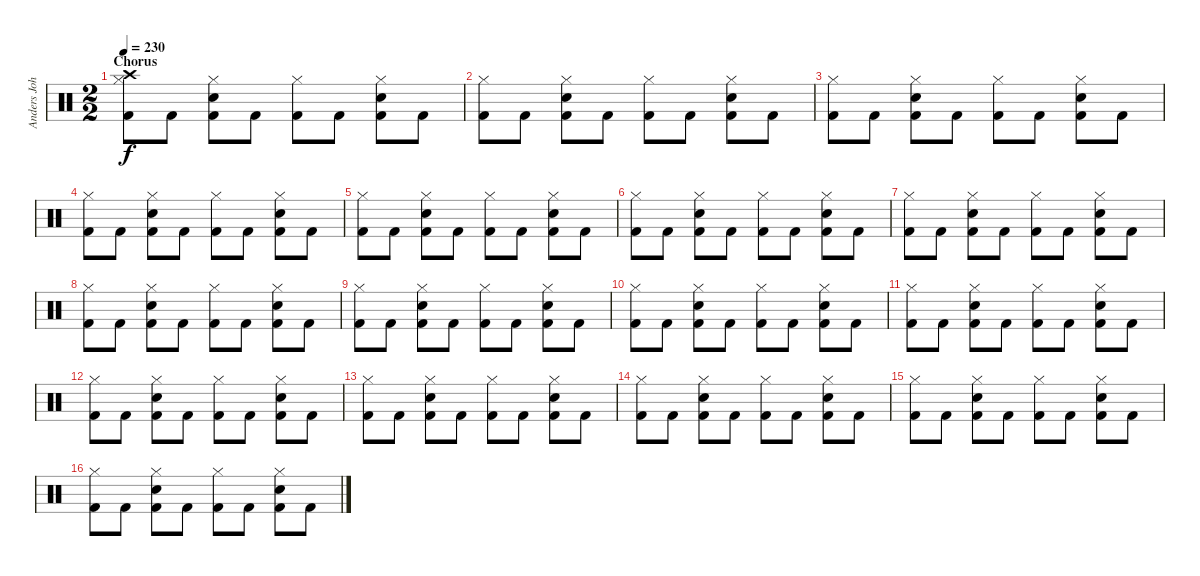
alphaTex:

\track ("Anders Johansson" "Anders Joh") {instrument percussion}
\staff {score}
\articulation defaults
\ts (2 2)
\section ("" "Chorus")
\tempo 230
\clef neutral
\ks c
("Crash high (hit)" "Hi-Hat (closed)" "Kick (hit) 2").8{dy f} "Kick (hit) 2".8 ("Electric Snare (hit)" "Hi-Hat (closed)" "Kick (hit) 2").8 "Kick (hit) 2".8 ("Hi-Hat (closed)" "Kick (hit) 2").8 "Kick (hit) 2".8 ("Electric Snare (hit)" "Hi-Hat (closed)" "Kick (hit) 2").8 "Kick (hit) 2".8 |
("Hi-Hat (closed)" "Kick (hit) 2").8 "Kick (hit) 2".8 ("Electric Snare (hit)" "Hi-Hat (closed)" "Kick (hit) 2").8 "Kick (hit) 2".8 ("Hi-Hat (closed)" "Kick (hit) 2").8 "Kick (hit) 2".8 ("Electric Snare (hit)" "Hi-Hat (closed)" "Kick (hit) 2").8 "Kick (hit) 2".8 |
("Hi-Hat (closed)" "Kick (hit) 2").8 "Kick (hit) 2".8 ("Electric Snare (hit)" "Hi-Hat (closed)" "Kick (hit) 2").8 "Kick (hit) 2".8 ("Hi-Hat (closed)" "Kick (hit) 2").8 "Kick (hit) 2".8 ("Electric Snare (hit)" "Hi-Hat (closed)" "Kick (hit) 2").8 "Kick (hit) 2".8 |
("Hi-Hat (closed)" "Kick (hit) 2").8 "Kick (hit) 2".8 ("Electric Snare (hit)" "Hi-Hat (closed)" "Kick (hit) 2").8 "Kick (hit) 2".8 ("Hi-Hat (closed)" "Kick (hit) 2").8 "Kick (hit) 2".8 ("Electric Snare (hit)" "Hi-Hat (closed)" "Kick (hit) 2").8 "Kick (hit) 2".8 |
("Hi-Hat (closed)" "Kick (hit) 2").8 "Kick (hit) 2".8 ("Electric Snare (hit)" "Hi-Hat (closed)" "Kick (hit) 2").8 "Kick (hit) 2".8 ("Hi-Hat (closed)" "Kick (hit) 2").8 "Kick (hit) 2".8 ("Electric Snare (hit)" "Hi-Hat (closed)" "Kick (hit) 2").8 "Kick (hit) 2".8 |
("Hi-Hat (closed)" "Kick (hit) 2").8 "Kick (hit) 2".8 ("Electric Snare (hit)" "Hi-Hat (closed)" "Kick (hit) 2").8 "Kick (hit) 2".8 ("Hi-Hat (closed)" "Kick (hit) 2").8 "Kick (hit) 2".8 ("Electric Snare (hit)" "Hi-Hat (closed)" "Kick (hit) 2").8 "Kick (hit) 2".8 |
("Hi-Hat (closed)" "Kick (hit) 2").8 "Kick (hit) 2".8 ("Electric Snare (hit)" "Hi-Hat (closed)" "Kick (hit) 2").8 "Kick (hit) 2".8 ("Hi-Hat (closed)" "Kick (hit) 2").8 "Kick (hit) 2".8 ("Electric Snare (hit)" "Hi-Hat (closed)" "Kick (hit) 2").8 "Kick (hit) 2".8 |
("Hi-Hat (closed)" "Kick (hit) 2").8 "Kick (hit) 2".8 ("Electric Snare (hit)" "Hi-Hat (closed)" "Kick (hit) 2").8 "Kick (hit) 2".8 ("Hi-Hat (closed)" "Kick (hit) 2").8 "Kick (hit) 2".8 ("Electric Snare (hit)" "Hi-Hat (closed)" "Kick (hit) 2").8 "Kick (hit) 2".8 |
("Hi-Hat (closed)" "Kick (hit) 2").8 "Kick (hit) 2".8 ("Electric Snare (hit)" "Hi-Hat (closed)" "Kick (hit) 2").8 "Kick (hit) 2".8 ("Hi-Hat (closed)" "Kick (hit) 2").8 "Kick (hit) 2".8 ("Electric Snare (hit)" "Hi-Hat (closed)" "Kick (hit) 2").8 "Kick (hit) 2".8 |
("Hi-Hat (closed)" "Kick (hit) 2").8 "Kick (hit) 2".8 ("Electric Snare (hit)" "Hi-Hat (closed)" "Kick (hit) 2").8 "Kick (hit) 2".8 ("Hi-Hat (closed)" "Kick (hit) 2").8 "Kick (hit) 2".8 ("Electric Snare (hit)" "Hi-Hat (closed)" "Kick (hit) 2").8 "Kick (hit) 2".8 |
("Hi-Hat (closed)" "Kick (hit) 2").8 "Kick (hit) 2".8 ("Electric Snare (hit)" "Hi-Hat (closed)" "Kick (hit) 2").8 "Kick (hit) 2".8 ("Hi-Hat (closed)" "Kick (hit) 2").8 "Kick (hit) 2".8 ("Electric Snare (hit)" "Hi-Hat (closed)" "Kick (hit) 2").8 "Kick (hit) 2".8 |
("Hi-Hat (closed)" "Kick (hit) 2").8 "Kick (hit) 2".8 ("Electric Snare (hit)" "Hi-Hat (closed)" "Kick (hit) 2").8 "Kick (hit) 2".8 ("Hi-Hat (closed)" "Kick (hit) 2").8 "Kick (hit) 2".8 ("Electric Snare (hit)" "Hi-Hat (closed)" "Kick (hit) 2").8 "Kick (hit) 2".8 |
("Hi-Hat (closed)" "Kick (hit) 2").8 "Kick (hit) 2".8 ("Electric Snare (hit)" "Hi-Hat (closed)" "Kick (hit) 2").8 "Kick (hit) 2".8 ("Hi-Hat (closed)" "Kick (hit) 2").8 "Kick (hit) 2".8 ("Electric Snare (hit)" "Hi-Hat (closed)" "Kick (hit) 2").8 "Kick (hit) 2".8 |
("Hi-Hat (closed)" "Kick (hit) 2").8 "Kick (hit) 2".8 ("Electric Snare (hit)" "Hi-Hat (closed)" "Kick (hit) 2").8 "Kick (hit) 2".8 ("Hi-Hat (closed)" "Kick (hit) 2").8 "Kick (hit) 2".8 ("Electric Snare (hit)" "Hi-Hat (closed)" "Kick (hit) 2").8 "Kick (hit) 2".8 |
("Hi-Hat (closed)" "Kick (hit) 2").8 "Kick (hit) 2".8 ("Electric Snare (hit)" "Hi-Hat (closed)" "Kick (hit) 2").8 "Kick (hit) 2".8 ("Hi-Hat (closed)" "Kick (hit) 2").8 "Kick (hit) 2".8 ("Electric Snare (hit)" "Hi-Hat (closed)" "Kick (hit) 2").8 "Kick (hit) 2".8 |
("Hi-Hat (closed)" "Kick (hit) 2").8 "Kick (hit) 2".8 ("Electric Snare (hit)" "Hi-Hat (closed)" "Kick (hit) 2").8 "Kick (hit) 2".8 ("Hi-Hat (closed)" "Kick (hit) 2").8 "Kick (hit) 2".8 ("Electric Snare (hit)" "Hi-Hat (closed)" "Kick (hit) 2").8 "Kick (hit) 2".8
